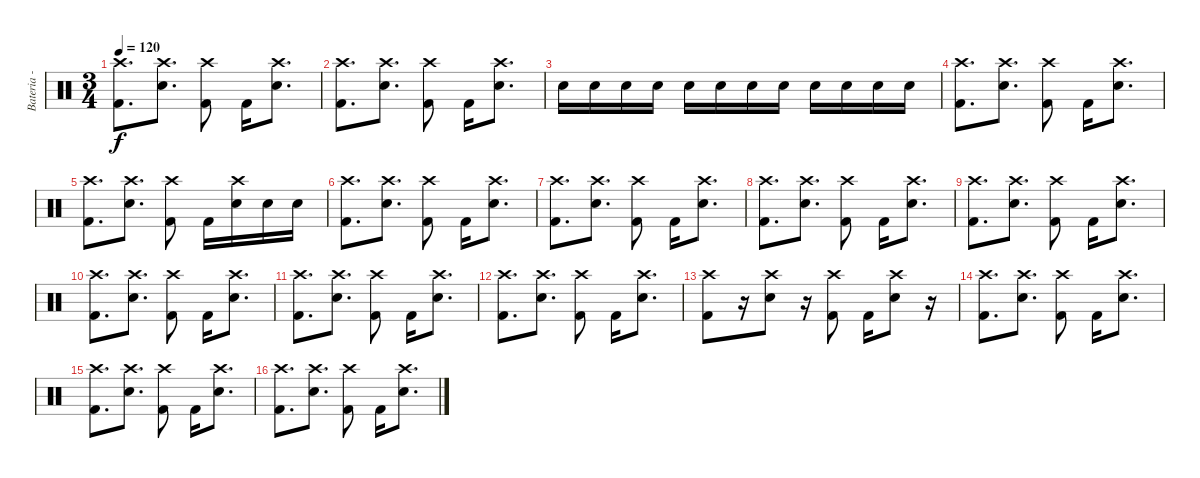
\track ("Bateria - Larzon" "Bateria - ") {instrument percussion}
\staff {score}
\articulation defaults
\ts (3 4)
\tempo 120
\clef neutral
\ks c
("Kick (hit) 2" "Crash high (hit)").8{d dy f} ("Snare (hit) 2" "Crash high (hit)").8{d} ("Kick (hit) 2" "Crash high (hit)").8 "Kick (hit) 2".16 ("Snare (hit) 2" "Crash high (hit)").8{d} |
("Kick (hit) 2" "Crash high (hit)").8{d} ("Snare (hit) 2" "Crash high (hit)").8{d} ("Kick (hit) 2" "Crash high (hit)").8 "Kick (hit) 2".16 ("Snare (hit) 2" "Crash high (hit)").8{d} |
"Snare (hit) 2".16 "Snare (hit) 2".16 "Snare (hit) 2".16 "Snare (hit) 2".16 "Snare (hit) 2".16 "Snare (hit) 2".16 "Snare (hit) 2".16 "Snare (hit) 2".16 "Snare (hit) 2".16 "Snare (hit) 2".16 "Snare (hit) 2".16 "Snare (hit) 2".16 |
("Kick (hit) 2" "Crash high (hit)").8{d} ("Snare (hit) 2" "Crash high (hit)").8{d} ("Kick (hit) 2" "Crash high (hit)").8 "Kick (hit) 2".16 ("Snare (hit) 2" "Crash high (hit)").8{d} |
("Kick (hit) 2" "Crash high (hit)").8{d} ("Snare (hit) 2" "Crash high (hit)").8{d} ("Kick (hit) 2" "Crash high (hit)").8 "Kick (hit) 2".16 ("Snare (hit) 2" "Crash high (hit)").16 "Snare (hit) 2".16 "Snare (hit) 2".16 |
("Kick (hit) 2" "Crash high (hit)").8{d} ("Snare (hit) 2" "Crash high (hit)").8{d} ("Kick (hit) 2" "Crash high (hit)").8 "Kick (hit) 2".16 ("Snare (hit) 2" "Crash high (hit)").8{d} |
("Kick (hit) 2" "Crash high (hit)").8{d} ("Snare (hit) 2" "Crash high (hit)").8{d} ("Kick (hit) 2" "Crash high (hit)").8 "Kick (hit) 2".16 ("Snare (hit) 2" "Crash high (hit)").8{d} |
("Kick (hit) 2" "Crash high (hit)").8{d} ("Snare (hit) 2" "Crash high (hit)").8{d} ("Kick (hit) 2" "Crash high (hit)").8 "Kick (hit) 2".16 ("Snare (hit) 2" "Crash high (hit)").8{d} |
("Kick (hit) 2" "Crash high (hit)").8{d} ("Snare (hit) 2" "Crash high (hit)").8{d} ("Kick (hit) 2" "Crash high (hit)").8 "Kick (hit) 2".16 ("Snare (hit) 2" "Crash high (hit)").8{d} |
("Kick (hit) 2" "Crash high (hit)").8{d} ("Snare (hit) 2" "Crash high (hit)").8{d} ("Kick (hit) 2" "Crash high (hit)").8 "Kick (hit) 2".16 ("Snare (hit) 2" "Crash high (hit)").8{d} |
("Kick (hit) 2" "Crash high (hit)").8{d} ("Snare (hit) 2" "Crash high (hit)").8{d} ("Kick (hit) 2" "Crash high (hit)").8 "Kick (hit) 2".16 ("Snare (hit) 2" "Crash high (hit)").8{d} |
("Kick (hit) 2" "Crash high (hit)").8{d} ("Snare (hit) 2" "Crash high (hit)").8{d} ("Kick (hit) 2" "Crash high (hit)").8 "Kick (hit) 2".16 ("Snare (hit) 2" "Crash high (hit)").8{d} |
("Kick (hit) 2" "Crash high (hit)").8 r.16 ("Snare (hit) 2" "Crash high (hit)").8 r.16 ("Kick (hit) 2" "Crash high (hit)").8 "Kick (hit) 2".16 ("Snare (hit) 2" "Crash high (hit)").8 r.16 |
("Kick (hit) 2" "Crash high (hit)").8{d} ("Snare (hit) 2" "Crash high (hit)").8{d} ("Kick (hit) 2" "Crash high (hit)").8 "Kick (hit) 2".16 ("Snare (hit) 2" "Crash high (hit)").8{d} |
("Kick (hit) 2" "Crash high (hit)").8{d} ("Snare (hit) 2" "Crash high (hit)").8{d} ("Kick (hit) 2" "Crash high (hit)").8 "Kick (hit) 2".16 ("Snare (hit) 2" "Crash high (hit)").8{d} |
("Kick (hit) 2" "Crash high (hit)").8{d} ("Snare (hit) 2" "Crash high (hit)").8{d} ("Kick (hit) 2" "Crash high (hit)").8 "Kick (hit) 2".16 ("Snare (hit) 2" "Crash high (hit)").8{d}
